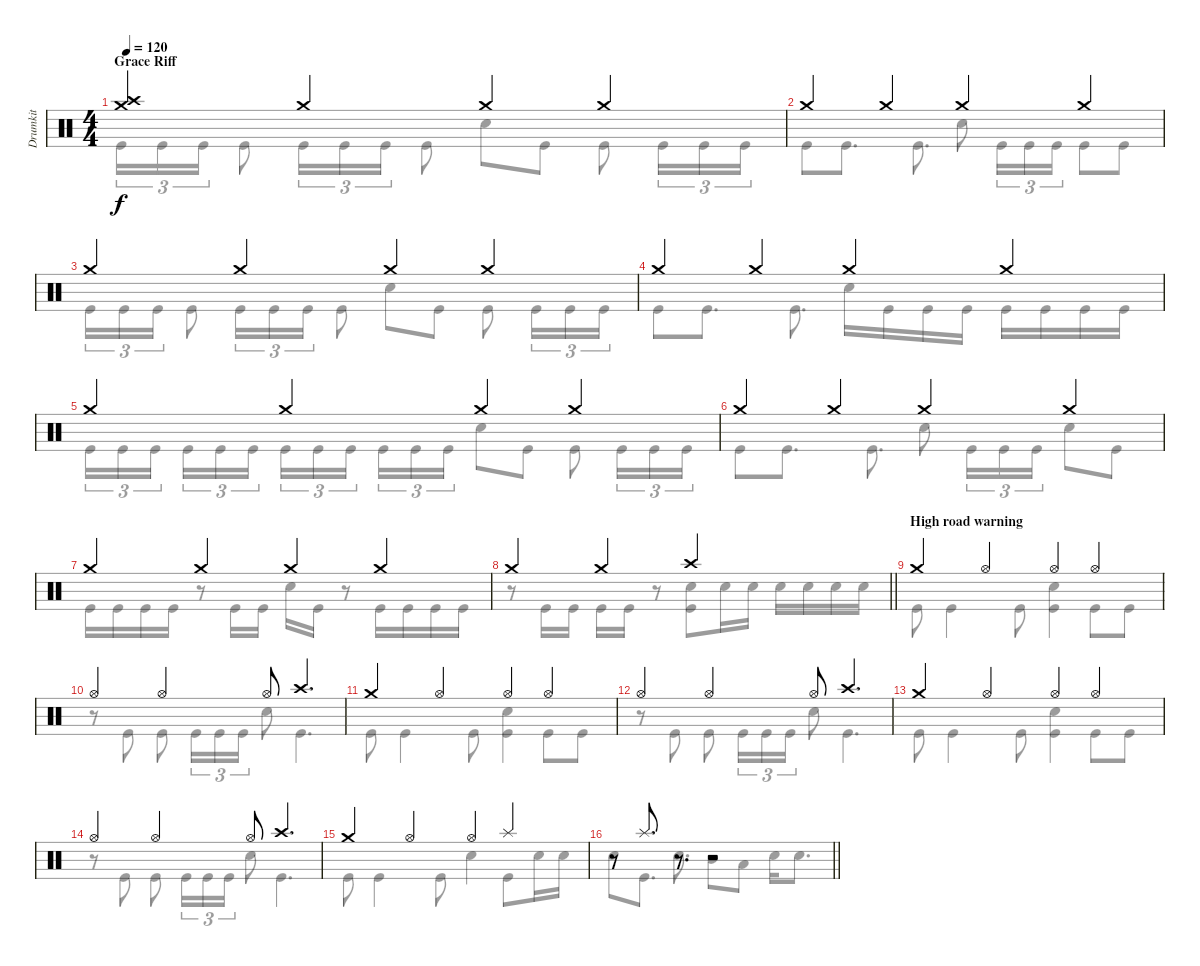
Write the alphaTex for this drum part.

\track ("Drumkit" "Drumkit") {instrument percussion}
\staff {score}
\articulation defaults
\voice
\ts (4 4)
\section ("" "Grace Riff")
\tempo 120
\clef neutral
\ks c
("Crash high (hit)" "Crash medium (hit)").4{dy f} "Crash medium (hit)".4 "Crash medium (hit)".4 "Crash medium (hit)".4 |
"Crash medium (hit)".4 "Crash medium (hit)".4 "Crash medium (hit)".4 "Crash medium (hit)".4 |
"Crash medium (hit)".4 "Crash medium (hit)".4 "Crash medium (hit)".4 "Crash medium (hit)".4 |
"Crash medium (hit)".4 "Crash medium (hit)".4 "Crash medium (hit)".4 "Crash medium (hit)".4 |
"Crash medium (hit)".4 "Crash medium (hit)".4 "Crash medium (hit)".4 "Crash medium (hit)".4 |
"Crash medium (hit)".4 "Crash medium (hit)".4 "Crash medium (hit)".4 "Crash medium (hit)".4 |
"Crash medium (hit)".4 "Crash medium (hit)".4 "Crash medium (hit)".4 "Crash medium (hit)".4 |
\barLineRight lightlight "Crash medium (hit)".4 "Crash medium (hit)".4 "Crash high (hit)".2
|
\section ("" "High road warning")
"Crash medium (hit)".4 "Hi-Hat (open)".4 "Hi-Hat (open)".4 "Hi-Hat (open)".4 |
"Hi-Hat (open)".4 "Hi-Hat (open)".4 "Hi-Hat (open)".8 "Crash high (hit)".4{d} |
"Crash medium (hit)".4 "Hi-Hat (open)".4 "Hi-Hat (open)".4 "Hi-Hat (open)".4 |
"Hi-Hat (open)".4 "Hi-Hat (open)".4 "Hi-Hat (open)".8 "Crash high (hit)".4{d} |
"Crash medium (hit)".4 "Hi-Hat (open)".4 "Hi-Hat (open)".4 "Hi-Hat (open)".4 |
"Hi-Hat (open)".4 "Hi-Hat (open)".4 "Hi-Hat (open)".8 "Crash high (hit)".4{d} |
"Crash medium (hit)".4 "Hi-Hat (open)".4 "Hi-Hat (open)".4 "Splash (hit)".4 |
\barLineRight lightlight
r.8 "Splash (hit)".8{d} r.8{d} r.2
\voice
\clef neutral
\ottava regular
\simile none
\ks c "Kick (hit)".16{tu (3 2) dy f} "Kick (hit)".16{tu (3 2)} "Kick (hit)".16{tu (3 2)} "Kick (hit)".8 "Kick (hit)".16{tu (3 2)} "Kick (hit)".16{tu (3 2)} "Kick (hit)".16{tu (3 2)} "Kick (hit)".8 "Snare (hit) 2".8 "Kick (hit)".8 "Kick (hit)".8 "Kick (hit)".16{tu (3 2)} "Kick (hit)".16{tu (3 2)} "Kick (hit)".16{tu (3 2)}
|
"Kick (hit)".8 "Kick (hit)".8{d} "Kick (hit)".8{d} "Snare (hit) 2".8 "Kick (hit)".16{tu (3 2)} "Kick (hit)".16{tu (3 2)} "Kick (hit)".16{tu (3 2)} "Kick (hit)".8 "Kick (hit)".8 |
"Kick (hit)".16{tu (3 2)} "Kick (hit)".16{tu (3 2)} "Kick (hit)".16{tu (3 2)} "Kick (hit)".8 "Kick (hit)".16{tu (3 2)} "Kick (hit)".16{tu (3 2)} "Kick (hit)".16{tu (3 2)} "Kick (hit)".8 "Snare (hit) 2".8 "Kick (hit)".8 "Kick (hit)".8 "Kick (hit)".16{tu (3 2)} "Kick (hit)".16{tu (3 2)} "Kick (hit)".16{tu (3 2)} |
"Kick (hit)".8 "Kick (hit)".8{d} "Kick (hit)".8{d} "Snare (hit) 2".16 "Kick (hit)".16 "Kick (hit)".16 "Kick (hit)".16 "Kick (hit)".16 "Kick (hit)".16 "Kick (hit)".16 "Kick (hit)".16 |
"Kick (hit)".16{tu (3 2)} "Kick (hit)".16{tu (3 2)} "Kick (hit)".16{tu (3 2) beam splitsecondary} "Kick (hit)".16{tu (3 2)} "Kick (hit)".16{tu (3 2)} "Kick (hit)".16{tu (3 2)} "Kick (hit)".16{tu (3 2)} "Kick (hit)".16{tu (3 2)} "Kick (hit)".16{tu (3 2) beam splitsecondary} "Kick (hit)".16{tu (3 2)} "Kick (hit)".16{tu (3 2)} "Kick (hit)".16{tu (3 2)} "Snare (hit) 2".8 "Kick (hit)".8 "Kick (hit)".8 "Kick (hit)".16{tu (3 2)} "Kick (hit)".16{tu (3 2)} "Kick (hit)".16{tu (3 2)} |
"Kick (hit)".8 "Kick (hit)".8{d} "Kick (hit)".8{d} "Snare (hit) 2".8 "Kick (hit)".16{tu (3 2)} "Kick (hit)".16{tu (3 2)} "Kick (hit)".16{tu (3 2)} "Snare (hit) 2".8 "Kick (hit)".8 |
"Kick (hit)".16 "Kick (hit)".16 "Kick (hit)".16 "Kick (hit)".16 r.8 "Kick (hit)".16 "Kick (hit)".16 "Snare (hit) 2".16 "Kick (hit)".16 r.8 "Kick (hit)".16 "Kick (hit)".16 "Kick (hit)".16 "Kick (hit)".16 |
\barLineRight lightlight
r.8 "Kick (hit)".16 "Kick (hit)".16 "Kick (hit)".16 "Kick (hit)".16 r.8 ("Snare (hit) 2" "Kick (hit)").8 "Snare (hit) 2".16 "Snare (hit) 2".16 "Snare (hit) 2".16 "Snare (hit) 2".16 "Snare (hit) 2".16 "Snare (hit) 2".16 |
"Kick (hit)".8 "Kick (hit)".4 "Kick (hit)".8 ("Snare (hit) 2" "Kick (hit)").4 "Kick (hit)".8 "Kick (hit)".8 |
r.8 "Kick (hit)".8 "Kick (hit)".8 "Kick (hit)".16{tu (3 2)} "Kick (hit)".16{tu (3 2)} "Kick (hit)".16{tu (3 2)} "Snare (hit) 2".8 "Kick (hit)".4{d} |
"Kick (hit)".8 "Kick (hit)".4 "Kick (hit)".8 ("Snare (hit) 2" "Kick (hit)").4 "Kick (hit)".8 "Kick (hit)".8 |
r.8 "Kick (hit)".8 "Kick (hit)".8 "Kick (hit)".16{tu (3 2)} "Kick (hit)".16{tu (3 2)} "Kick (hit)".16{tu (3 2)} "Snare (hit) 2".8 "Kick (hit)".4{d} |
"Kick (hit)".8 "Kick (hit)".4 "Kick (hit)".8 ("Snare (hit) 2" "Kick (hit)").4 "Kick (hit)".8 "Kick (hit)".8 |
r.8 "Kick (hit)".8 "Kick (hit)".8 "Kick (hit)".16{tu (3 2)} "Kick (hit)".16{tu (3 2)} "Kick (hit)".16{tu (3 2)} "Snare (hit) 2".8 "Kick (hit)".4{d} |
"Kick (hit)".8 "Kick (hit)".4 "Kick (hit)".8 "Snare (hit) 2".4 "Kick (hit)".8 "Snare (hit) 2".16 "Snare (hit) 2".16 |
\barLineRight lightlight "Snare (hit) 2".8 "Kick (hit)".8{d} "Snare (hit) 2".8{d} "Mid Tom (hit)".8 "Low Tom (hit)".8 "Snare (hit) 2".16 "Snare (hit) 2".8{d}
